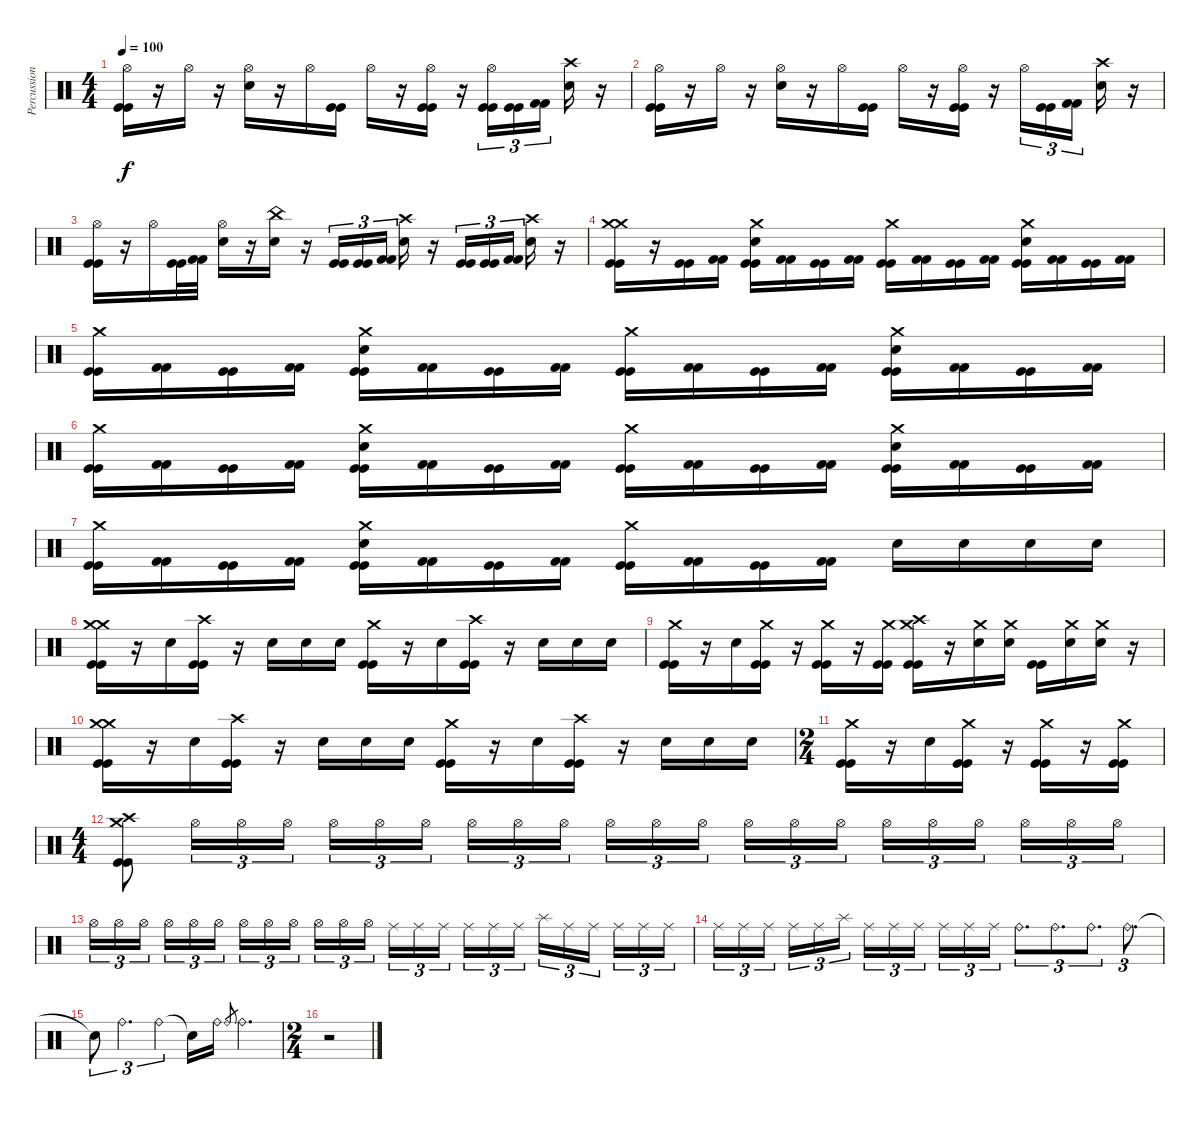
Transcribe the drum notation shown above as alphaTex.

\track ("Percussion" "Percussion") {instrument percussion}
\staff {score}
\articulation defaults
\ts (4 4)
\tempo 100
\clef neutral
\ks c
("Hi-Hat (open)" "Kick (hit)" "Kick (hit)").16{dy f} r.16 "Hi-Hat (open)".16 r.16 ("Hi-Hat (open)" "Snare (hit) 2").16 r.16 "Hi-Hat (open)".16 ("Kick (hit)" "Kick (hit)").16 "Hi-Hat (open)".16 r.16 ("Hi-Hat (open)" "Kick (hit)" "Kick (hit)").16 r.16 ("Hi-Hat (open)" "Kick (hit)" "Kick (hit)").16{tu (3 2)} ("Kick (hit)" "Kick (hit)").16{tu (3 2)} ("Kick (hit) 2" "Kick (hit) 2").16{tu (3 2)} ("Crash high (hit)" "Snare (hit) 2").16 r.16 |
("Hi-Hat (open)" "Kick (hit)" "Kick (hit)").16 r.16 "Hi-Hat (open)".16 r.16 ("Hi-Hat (open)" "Snare (hit) 2").16 r.16 "Hi-Hat (open)".16 ("Kick (hit)" "Kick (hit)").16 "Hi-Hat (open)".16 r.16 ("Hi-Hat (open)" "Kick (hit)" "Kick (hit)").16 r.16 "Hi-Hat (open)".16{tu (3 2)} ("Kick (hit)" "Kick (hit)").16{tu (3 2)} ("Kick (hit) 2" "Kick (hit) 2").16{tu (3 2)} ("Crash high (hit)" "Snare (hit) 2").16 r.16 |
("Hi-Hat (open)" "Kick (hit)" "Kick (hit)").16 r.16 "Hi-Hat (open)".16 ("Kick (hit)" "Kick (hit)").32 ("Kick (hit) 2" "Kick (hit) 2").32 ("Hi-Hat (open)" "Snare (hit) 2").16 r.16 ("China (hit)" "Snare (hit) 2").16 r.16 ("Kick (hit)" "Kick (hit)").16{tu (3 2)} ("Kick (hit)" "Kick (hit)").16{tu (3 2)} ("Kick (hit) 2" "Kick (hit) 2").16{tu (3 2)} ("Crash high (hit)" "Snare (hit) 2").16 r.16 ("Kick (hit)" "Kick (hit)").16{tu (3 2)} ("Kick (hit)" "Kick (hit)").16{tu (3 2)} ("Kick (hit) 2" "Kick (hit) 2").16{tu (3 2)} ("Crash high (hit)" "Snare (hit) 2").16 r.16 |
("Crash medium (hit)" "Crash medium (hit)" "Kick (hit)" "Kick (hit)").16 r.16 ("Kick (hit)" "Kick (hit)").16 ("Kick (hit) 2" "Kick (hit) 2").16 ("Crash medium (hit)" "Snare (hit) 2" "Kick (hit)" "Kick (hit)").16 ("Kick (hit) 2" "Kick (hit) 2").16 ("Kick (hit)" "Kick (hit)").16 ("Kick (hit) 2" "Kick (hit) 2").16 ("Crash medium (hit)" "Kick (hit)" "Kick (hit)").16 ("Kick (hit) 2" "Kick (hit) 2").16 ("Kick (hit)" "Kick (hit)").16 ("Kick (hit) 2" "Kick (hit) 2").16 ("Crash medium (hit)" "Snare (hit) 2" "Kick (hit)" "Kick (hit)").16 ("Kick (hit) 2" "Kick (hit) 2").16 ("Kick (hit)" "Kick (hit)").16 ("Kick (hit) 2" "Kick (hit) 2").16 |
("Crash medium (hit)" "Kick (hit)" "Kick (hit)").16 ("Kick (hit) 2" "Kick (hit) 2").16 ("Kick (hit)" "Kick (hit)").16 ("Kick (hit) 2" "Kick (hit) 2").16 ("Crash medium (hit)" "Snare (hit) 2" "Kick (hit)" "Kick (hit)").16 ("Kick (hit) 2" "Kick (hit) 2").16 ("Kick (hit)" "Kick (hit)").16 ("Kick (hit) 2" "Kick (hit) 2").16 ("Crash medium (hit)" "Kick (hit)" "Kick (hit)").16 ("Kick (hit) 2" "Kick (hit) 2").16 ("Kick (hit)" "Kick (hit)").16 ("Kick (hit) 2" "Kick (hit) 2").16 ("Crash medium (hit)" "Snare (hit) 2" "Kick (hit)" "Kick (hit)").16 ("Kick (hit) 2" "Kick (hit) 2").16 ("Kick (hit)" "Kick (hit)").16 ("Kick (hit) 2" "Kick (hit) 2").16 |
("Crash medium (hit)" "Kick (hit)" "Kick (hit)").16 ("Kick (hit) 2" "Kick (hit) 2").16 ("Kick (hit)" "Kick (hit)").16 ("Kick (hit) 2" "Kick (hit) 2").16 ("Crash medium (hit)" "Snare (hit) 2" "Kick (hit)" "Kick (hit)").16 ("Kick (hit) 2" "Kick (hit) 2").16 ("Kick (hit)" "Kick (hit)").16 ("Kick (hit) 2" "Kick (hit) 2").16 ("Crash medium (hit)" "Kick (hit)" "Kick (hit)").16 ("Kick (hit) 2" "Kick (hit) 2").16 ("Kick (hit)" "Kick (hit)").16 ("Kick (hit) 2" "Kick (hit) 2").16 ("Crash medium (hit)" "Snare (hit) 2" "Kick (hit)" "Kick (hit)").16 ("Kick (hit) 2" "Kick (hit) 2").16 ("Kick (hit)" "Kick (hit)").16 ("Kick (hit) 2" "Kick (hit) 2").16 |
("Crash medium (hit)" "Kick (hit)" "Kick (hit)").16 ("Kick (hit) 2" "Kick (hit) 2").16 ("Kick (hit)" "Kick (hit)").16 ("Kick (hit) 2" "Kick (hit) 2").16 ("Crash medium (hit)" "Snare (hit) 2" "Kick (hit)" "Kick (hit)").16 ("Kick (hit) 2" "Kick (hit) 2").16 ("Kick (hit)" "Kick (hit)").16 ("Kick (hit) 2" "Kick (hit) 2").16 ("Crash medium (hit)" "Kick (hit)" "Kick (hit)").16 ("Kick (hit) 2" "Kick (hit) 2").16 ("Kick (hit)" "Kick (hit)").16 ("Kick (hit) 2" "Kick (hit) 2").16 "Snare (hit) 2".16 "Snare (hit) 2".16 "Snare (hit) 2".16 "Snare (hit) 2".16 |
("Crash medium (hit)" "Crash medium (hit)" "Kick (hit)" "Kick (hit)").16 r.16 "Snare (hit) 2".16 ("Crash high (hit)" "Kick (hit)" "Kick (hit)").16 r.16 "Snare (hit) 2".16 "Snare (hit) 2".16 "Snare (hit) 2".16 ("Crash medium (hit)" "Kick (hit)" "Kick (hit)").16 r.16 "Snare (hit) 2".16 ("Crash high (hit)" "Kick (hit)" "Kick (hit)").16 r.16 "Snare (hit) 2".16 "Snare (hit) 2".16 "Snare (hit) 2".16 |
("Crash medium (hit)" "Kick (hit)" "Kick (hit)").16 r.16 "Snare (hit) 2".16 ("Crash medium (hit)" "Kick (hit)" "Kick (hit)").16 r.16 ("Crash medium (hit)" "Kick (hit)" "Kick (hit)").16 r.16 ("Crash medium (hit)" "Kick (hit)" "Kick (hit)").16 ("Crash medium (hit)" "Crash high (hit)" "Kick (hit)" "Kick (hit)").16 r.16 ("Crash medium (hit)" "Snare (hit) 2").16 ("Crash medium (hit)" "Snare (hit) 2").16 ("Kick (hit)" "Kick (hit)").16 ("Crash medium (hit)" "Snare (hit) 2").16 ("Crash medium (hit)" "Snare (hit) 2").16 r.16 |
("Crash medium (hit)" "Crash medium (hit)" "Kick (hit)" "Kick (hit)").16 r.16 "Snare (hit) 2".16 ("Crash high (hit)" "Kick (hit)" "Kick (hit)").16 r.16 "Snare (hit) 2".16 "Snare (hit) 2".16 "Snare (hit) 2".16 ("Crash medium (hit)" "Kick (hit)" "Kick (hit)").16 r.16 "Snare (hit) 2".16 ("Crash high (hit)" "Kick (hit)" "Kick (hit)").16 r.16 "Snare (hit) 2".16 "Snare (hit) 2".16 "Snare (hit) 2".16 |
\ts (2 4)
("Crash medium (hit)" "Kick (hit)" "Kick (hit)").16 r.16 "Snare (hit) 2".16 ("Crash medium (hit)" "Kick (hit)" "Kick (hit)").16 r.16 ("Crash medium (hit)" "Kick (hit)" "Kick (hit)").16 r.16 ("Crash medium (hit)" "Kick (hit)" "Kick (hit)").16 |
\ts (4 4)
("Crash medium (hit)" "Crash high (hit)" "Kick (hit)" "Kick (hit)").8 "Hi-Hat (open)".16{tu (3 2) volume 10} "Hi-Hat (open)".16{tu (3 2) volume 10} "Hi-Hat (open)".16{tu (3 2) volume 10} "Hi-Hat (open)".16{tu (3 2) volume 10} "Hi-Hat (open)".16{tu (3 2) volume 10} "Hi-Hat (open)".16{tu (3 2) volume 10} "Hi-Hat (open)".16{tu (3 2) volume 10} "Hi-Hat (open)".16{tu (3 2) volume 10} "Hi-Hat (open)".16{tu (3 2) volume 10} "Hi-Hat (open)".16{tu (3 2) volume 10} "Hi-Hat (open)".16{tu (3 2) volume 10} "Hi-Hat (open)".16{tu (3 2) volume 10} "Hi-Hat (open)".16{tu (3 2) volume 10} "Hi-Hat (open)".16{tu (3 2) volume 10} "Hi-Hat (open)".16{tu (3 2) volume 10} "Hi-Hat (open)".16{tu (3 2) volume 10} "Hi-Hat (open)".16{tu (3 2) volume 10} "Hi-Hat (open)".16{tu (3 2) volume 10} "Hi-Hat (open)".16{tu (3 2) volume 10} "Hi-Hat (open)".16{tu (3 2) volume 10} "Hi-Hat (open)".16{tu (3 2) volume 10} |
"Hi-Hat (open)".16{tu (3 2) volume 10} "Hi-Hat (open)".16{tu (3 2) volume 10} "Hi-Hat (open)".16{tu (3 2) volume 10} "Hi-Hat (open)".16{tu (3 2) volume 10} "Hi-Hat (open)".16{tu (3 2) volume 10} "Hi-Hat (open)".16{tu (3 2) volume 10} "Hi-Hat (open)".16{tu (3 2) volume 10} "Hi-Hat (open)".16{tu (3 2) volume 10} "Hi-Hat (open)".16{tu (3 2) volume 10} "Hi-Hat (open)".16{tu (3 2) volume 10} "Hi-Hat (open)".16{tu (3 2) volume 10} "Hi-Hat (open)".16{tu (3 2) volume 10} "Ride (middle)".16{tu (3 2) volume 10} "Ride (middle)".16{tu (3 2) volume 10} "Ride (middle)".16{tu (3 2) volume 10} "Ride (middle)".16{tu (3 2) volume 10} "Ride (middle)".16{tu (3 2) volume 10} "Ride (middle)".16{tu (3 2) volume 10} "Splash (hit)".16{tu (3 2) volume 10} "Ride (middle)".16{tu (3 2) volume 10} "Ride (middle)".16{tu (3 2) volume 10} "Ride (middle)".16{tu (3 2) volume 10} "Ride (middle)".16{tu (3 2) volume 10} "Ride (middle)".16{tu (3 2) volume 10} |
"Ride (middle)".16{tu (3 2) volume 10} "Ride (middle)".16{tu (3 2) volume 10} "Ride (middle)".16{tu (3 2) volume 10} "Ride (middle)".16{tu (3 2) volume 10} "Ride (middle)".16{tu (3 2) volume 10} "Splash (hit)".16{tu (3 2) volume 10} "Ride (middle)".16{tu (3 2) volume 10} "Ride (middle)".16{tu (3 2) volume 10} "Ride (middle)".16{tu (3 2) volume 10} "Ride (middle)".16{tu (3 2) volume 10} "Ride (middle)".16{tu (3 2) volume 10} "Ride (middle)".16{tu (3 2) volume 10} "Ride (bell)".8{d tu (3 2) volume 16} "Ride (bell)".8{d tu (3 2)} "Ride (bell)".8{d tu (3 2)} "Ride (bell)".8{d tu (3 2)} |
"Snare (hit)"{t}.8{tu (3 2)} "Ride (bell)".4{d tu (3 2)} "Ride (bell)".4{tu (3 2)} "Snare (hit)"{t}.16 "Ride (bell)".16 "Ride (bell)".8{gr} "Ride (bell)".4{d} |
\ts (2 4)
r.2
